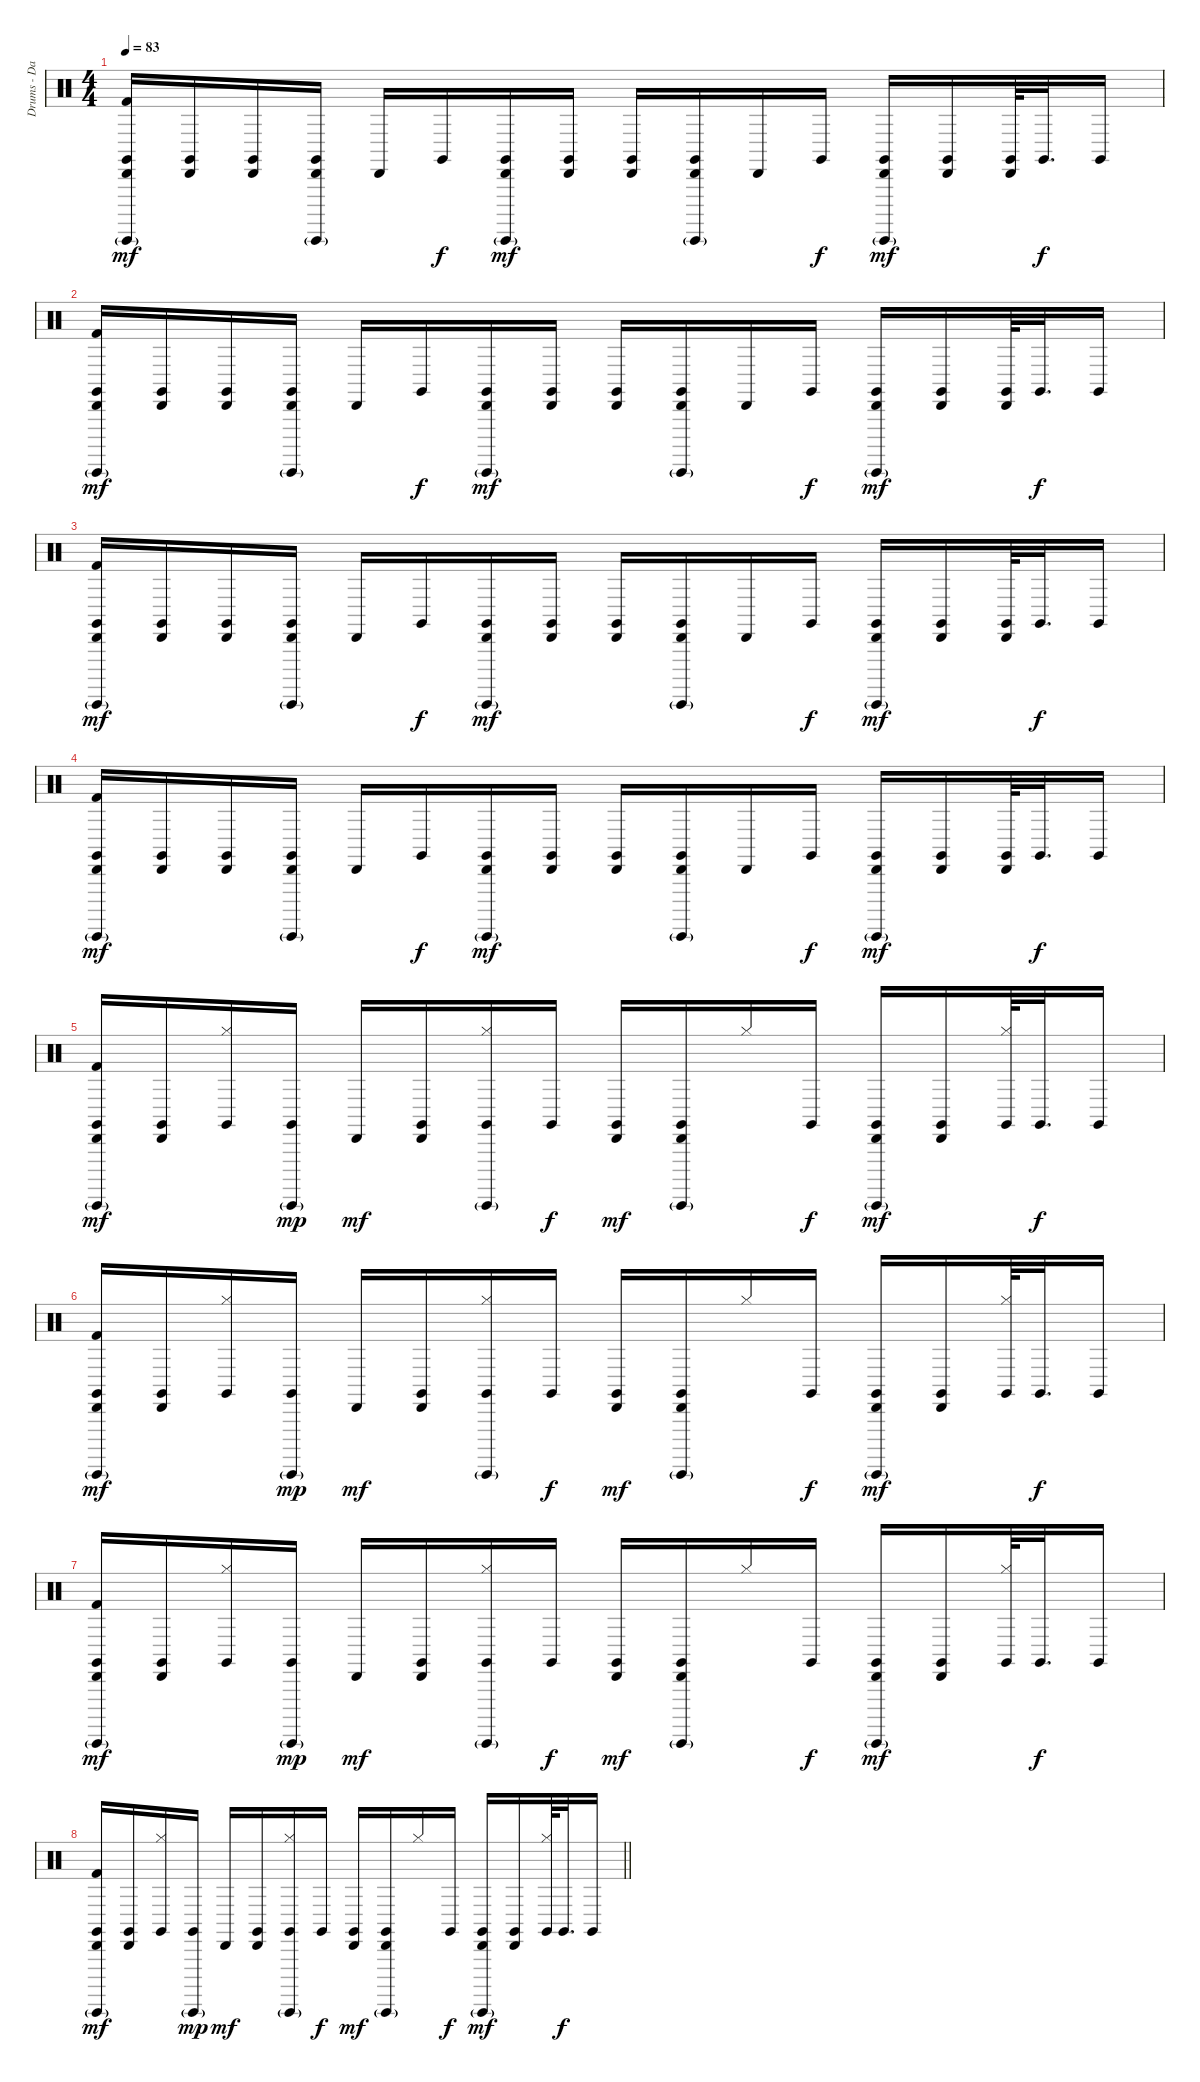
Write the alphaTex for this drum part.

\track ("Drums - Danny Carey" "Drums - Da") {instrument percussion}
\staff {score}
\articulation defaults
\ts (4 4)
\tempo 83
\clef neutral
\ks c
("Claves (hit)" "Kick (hit) 2" "Guiro (hit)"{g} "Cabasa (hit)").16{dy mf} ("Claves (hit)" "Cabasa (hit)").16 ("Claves (hit)" "Cabasa (hit)").16 ("Claves (hit)" "Guiro (hit)"{g} "Cabasa (hit)").16 "Cabasa (hit)".16 "Claves (hit)".16{dy f} ("Claves (hit)" "Guiro (hit)"{g} "Cabasa (hit)").16{dy mf} ("Claves (hit)" "Cabasa (hit)").16 ("Claves (hit)" "Cabasa (hit)").16 ("Claves (hit)" "Guiro (hit)"{g} "Cabasa (hit)").16 "Cabasa (hit)".16 "Claves (hit)".16{dy f} ("Claves (hit)" "Guiro (hit)"{g} "Cabasa (hit)").16{dy mf} ("Claves (hit)" "Cabasa (hit)").16 ("Claves (hit)" "Cabasa (hit)").64 "Claves (hit)".32{d dy f} "Claves (hit)".16 |
("Claves (hit)" "Kick (hit) 2" "Guiro (hit)"{g} "Cabasa (hit)").16{dy mf} ("Claves (hit)" "Cabasa (hit)").16 ("Claves (hit)" "Cabasa (hit)").16 ("Claves (hit)" "Guiro (hit)"{g} "Cabasa (hit)").16 "Cabasa (hit)".16 "Claves (hit)".16{dy f} ("Claves (hit)" "Guiro (hit)"{g} "Cabasa (hit)").16{dy mf} ("Claves (hit)" "Cabasa (hit)").16 ("Claves (hit)" "Cabasa (hit)").16 ("Claves (hit)" "Guiro (hit)"{g} "Cabasa (hit)").16 "Cabasa (hit)".16 "Claves (hit)".16{dy f} ("Claves (hit)" "Guiro (hit)"{g} "Cabasa (hit)").16{dy mf} ("Claves (hit)" "Cabasa (hit)").16 ("Claves (hit)" "Cabasa (hit)").64 "Claves (hit)".32{d dy f} "Claves (hit)".16 |
("Claves (hit)" "Kick (hit) 2" "Guiro (hit)"{g} "Cabasa (hit)").16{dy mf} ("Claves (hit)" "Cabasa (hit)").16 ("Claves (hit)" "Cabasa (hit)").16 ("Claves (hit)" "Guiro (hit)"{g} "Cabasa (hit)").16 "Cabasa (hit)".16 "Claves (hit)".16{dy f} ("Claves (hit)" "Guiro (hit)"{g} "Cabasa (hit)").16{dy mf} ("Claves (hit)" "Cabasa (hit)").16 ("Claves (hit)" "Cabasa (hit)").16 ("Claves (hit)" "Guiro (hit)"{g} "Cabasa (hit)").16 "Cabasa (hit)".16 "Claves (hit)".16{dy f} ("Claves (hit)" "Guiro (hit)"{g} "Cabasa (hit)").16{dy mf} ("Claves (hit)" "Cabasa (hit)").16 ("Claves (hit)" "Cabasa (hit)").64 "Claves (hit)".32{d dy f} "Claves (hit)".16 |
("Claves (hit)" "Kick (hit) 2" "Guiro (hit)"{g} "Cabasa (hit)").16{dy mf} ("Claves (hit)" "Cabasa (hit)").16 ("Claves (hit)" "Cabasa (hit)").16 ("Claves (hit)" "Guiro (hit)"{g} "Cabasa (hit)").16 "Cabasa (hit)".16 "Claves (hit)".16{dy f} ("Claves (hit)" "Guiro (hit)"{g} "Cabasa (hit)").16{dy mf} ("Claves (hit)" "Cabasa (hit)").16 ("Claves (hit)" "Cabasa (hit)").16 ("Claves (hit)" "Guiro (hit)"{g} "Cabasa (hit)").16 "Cabasa (hit)".16 "Claves (hit)".16{dy f} ("Claves (hit)" "Guiro (hit)"{g} "Cabasa (hit)").16{dy mf} ("Claves (hit)" "Cabasa (hit)").16 ("Claves (hit)" "Cabasa (hit)").64 "Claves (hit)".32{d dy f} "Claves (hit)".16 |
("Claves (hit)" "Kick (hit) 2" "Guiro (hit)"{g} "Cabasa (hit)").16{dy mf} ("Claves (hit)" "Cabasa (hit)").16 ("Claves (hit)" "Hi-Hat (closed)").16 ("Claves (hit)" "Guiro (hit)"{g}).16{dy mp} "Cabasa (hit)".16{dy mf} ("Claves (hit)" "Cabasa (hit)").16 ("Claves (hit)" "Guiro (hit)"{g} "Hi-Hat (closed)").16 "Claves (hit)".16{dy f} ("Claves (hit)" "Cabasa (hit)").16{dy mf} ("Claves (hit)" "Guiro (hit)"{g} "Cabasa (hit)").16 "Hi-Hat (closed)".16 "Claves (hit)".16{dy f} ("Claves (hit)" "Guiro (hit)"{g} "Cabasa (hit)").16{dy mf} ("Claves (hit)" "Cabasa (hit)").16 ("Claves (hit)" "Hi-Hat (closed)").64 "Claves (hit)".32{d dy f} "Claves (hit)".16 |
("Claves (hit)" "Kick (hit) 2" "Guiro (hit)"{g} "Cabasa (hit)").16{dy mf} ("Claves (hit)" "Cabasa (hit)").16 ("Claves (hit)" "Hi-Hat (closed)").16 ("Claves (hit)" "Guiro (hit)"{g}).16{dy mp} "Cabasa (hit)".16{dy mf} ("Claves (hit)" "Cabasa (hit)").16 ("Claves (hit)" "Guiro (hit)"{g} "Hi-Hat (closed)").16 "Claves (hit)".16{dy f} ("Claves (hit)" "Cabasa (hit)").16{dy mf} ("Claves (hit)" "Guiro (hit)"{g} "Cabasa (hit)").16 "Hi-Hat (closed)".16 "Claves (hit)".16{dy f} ("Claves (hit)" "Guiro (hit)"{g} "Cabasa (hit)").16{dy mf} ("Claves (hit)" "Cabasa (hit)").16 ("Claves (hit)" "Hi-Hat (closed)").64 "Claves (hit)".32{d dy f} "Claves (hit)".16 |
("Claves (hit)" "Kick (hit) 2" "Guiro (hit)"{g} "Cabasa (hit)").16{dy mf} ("Claves (hit)" "Cabasa (hit)").16 ("Claves (hit)" "Hi-Hat (closed)").16 ("Claves (hit)" "Guiro (hit)"{g}).16{dy mp} "Cabasa (hit)".16{dy mf} ("Claves (hit)" "Cabasa (hit)").16 ("Claves (hit)" "Guiro (hit)"{g} "Hi-Hat (closed)").16 "Claves (hit)".16{dy f} ("Claves (hit)" "Cabasa (hit)").16{dy mf} ("Claves (hit)" "Guiro (hit)"{g} "Cabasa (hit)").16 "Hi-Hat (closed)".16 "Claves (hit)".16{dy f} ("Claves (hit)" "Guiro (hit)"{g} "Cabasa (hit)").16{dy mf} ("Claves (hit)" "Cabasa (hit)").16 ("Claves (hit)" "Hi-Hat (closed)").64 "Claves (hit)".32{d dy f} "Claves (hit)".16 |
\barLineRight lightlight
("Claves (hit)" "Kick (hit) 2" "Guiro (hit)"{g} "Cabasa (hit)").16{dy mf} ("Claves (hit)" "Cabasa (hit)").16 ("Claves (hit)" "Hi-Hat (closed)").16 ("Claves (hit)" "Guiro (hit)"{g}).16{dy mp} "Cabasa (hit)".16{dy mf} ("Claves (hit)" "Cabasa (hit)").16 ("Claves (hit)" "Guiro (hit)"{g} "Hi-Hat (closed)").16 "Claves (hit)".16{dy f} ("Claves (hit)" "Cabasa (hit)").16{dy mf} ("Claves (hit)" "Guiro (hit)"{g} "Cabasa (hit)").16 "Hi-Hat (closed)".16 "Claves (hit)".16{dy f} ("Claves (hit)" "Guiro (hit)"{g} "Cabasa (hit)").16{dy mf} ("Claves (hit)" "Cabasa (hit)").16 ("Claves (hit)" "Hi-Hat (closed)").64 "Claves (hit)".32{d dy f} "Claves (hit)".16
